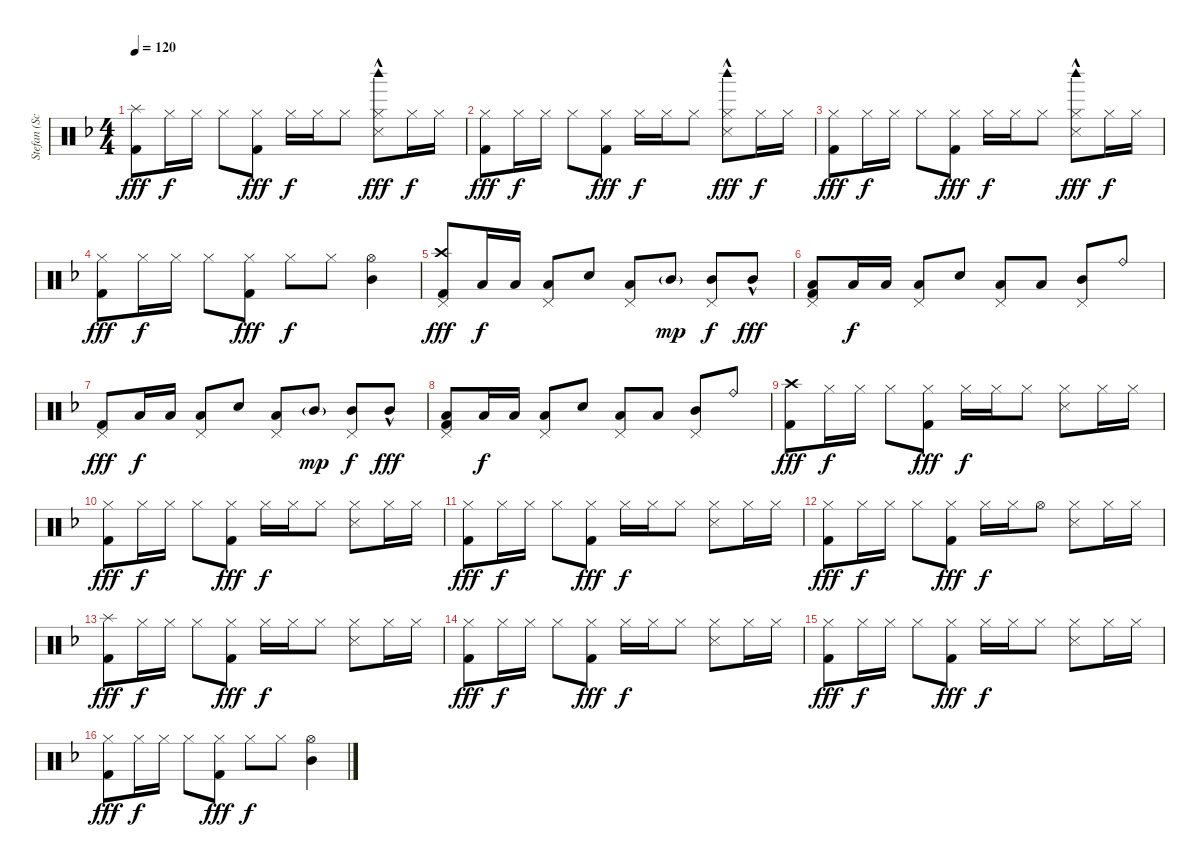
\track ("Stefan (Schlagzeug)" "Stefan (Sc") {instrument percussion}
\staff {score}
\articulation defaults
\ts (4 4)
\tempo 120
\clef neutral
\ks f
("Splash (hit)" "Kick (hit) 2").8{dy fff} "Hi-Hat (closed)".16{dy f} "Hi-Hat (closed)".16 "Hi-Hat (closed)".8 ("Hi-Hat (closed)" "Kick (hit) 2").8{dy fff} "Hi-Hat (closed)".16{dy f} "Hi-Hat (closed)".16 "Hi-Hat (closed)".8 ("Hi-Hat (closed)" "Woodblock high (hit)"{hac} "Snare (side stick) 3").8{dy fff} "Hi-Hat (closed)".16{dy f} "Hi-Hat (closed)".16 |
("Hi-Hat (closed)" "Kick (hit) 2").8{dy fff} "Hi-Hat (closed)".16{dy f} "Hi-Hat (closed)".16 "Hi-Hat (closed)".8 ("Hi-Hat (closed)" "Kick (hit) 2").8{dy fff} "Hi-Hat (closed)".16{dy f} "Hi-Hat (closed)".16 "Hi-Hat (closed)".8 ("Hi-Hat (closed)" "Woodblock high (hit)"{hac} "Snare (side stick) 3").8{dy fff} "Hi-Hat (closed)".16{dy f} "Hi-Hat (closed)".16 |
("Hi-Hat (closed)" "Kick (hit) 2").8{dy fff} "Hi-Hat (closed)".16{dy f} "Hi-Hat (closed)".16 "Hi-Hat (closed)".8 ("Hi-Hat (closed)" "Kick (hit) 2").8{dy fff} "Hi-Hat (closed)".16{dy f} "Hi-Hat (closed)".16 "Hi-Hat (closed)".8 ("Hi-Hat (closed)" "Woodblock high (hit)"{hac} "Snare (side stick) 3").8{dy fff} "Hi-Hat (closed)".16{dy f} "Hi-Hat (closed)".16 |
("Hi-Hat (closed)" "Kick (hit) 2").8{dy fff} "Hi-Hat (closed)".16{dy f} "Hi-Hat (closed)".16 "Hi-Hat (closed)".8 ("Hi-Hat (closed)" "Kick (hit) 2").8{dy fff} "Hi-Hat (closed)".8{dy f} "Hi-Hat (closed)".8 ("Hi-Hat (open)" "Mid Tom (hit)").4 |
("Crash high (hit)" "Kick (hit) 2" "Pedal Hi-Hat (hit)").8{dy fff} "Low Tom (hit)".16{dy f} "Low Tom (hit)".16 ("Low Tom (hit)" "Pedal Hi-Hat (hit)").8 "Snare (hit) 2".8 ("Low Tom (hit)" "Pedal Hi-Hat (hit)").8 "Mid Tom (hit)"{g}.8{dy mp} ("Mid Tom (hit)" "Pedal Hi-Hat (hit)").8{dy f} "Mid Tom (hit)"{hac}.8{dy fff} |
("Low Tom (hit)" "Kick (hit) 2" "Pedal Hi-Hat (hit)").8 "Low Tom (hit)".16{dy f} "Low Tom (hit)".16 ("Low Tom (hit)" "Pedal Hi-Hat (hit)").8 "Snare (hit) 2".8 ("Low Tom (hit)" "Pedal Hi-Hat (hit)").8 "Low Tom (hit)".8 ("Mid Tom (hit)" "Pedal Hi-Hat (hit)").8 "Ride (bell)".8 |
("Kick (hit) 2" "Pedal Hi-Hat (hit)").8{dy fff} "Low Tom (hit)".16{dy f} "Low Tom (hit)".16 ("Low Tom (hit)" "Pedal Hi-Hat (hit)").8 "Snare (hit) 2".8 ("Low Tom (hit)" "Pedal Hi-Hat (hit)").8 "Mid Tom (hit)"{g}.8{dy mp} ("Mid Tom (hit)" "Pedal Hi-Hat (hit)").8{dy f} "Mid Tom (hit)"{hac}.8{dy fff} |
("Low Tom (hit)" "Kick (hit) 2" "Pedal Hi-Hat (hit)").8 "Low Tom (hit)".16{dy f} "Low Tom (hit)".16 ("Low Tom (hit)" "Pedal Hi-Hat (hit)").8 "Snare (hit) 2".8 ("Low Tom (hit)" "Pedal Hi-Hat (hit)").8 "Low Tom (hit)".8 ("Mid Tom (hit)" "Pedal Hi-Hat (hit)").8 "Ride (bell)".8 |
("Crash high (hit)" "Kick (hit) 2").8{dy fff} "Hi-Hat (closed)".16{dy f} "Hi-Hat (closed)".16 "Hi-Hat (closed)".8 ("Hi-Hat (closed)" "Kick (hit) 2").8{dy fff} "Hi-Hat (closed)".16{dy f} "Hi-Hat (closed)".16 "Hi-Hat (closed)".8 ("Hi-Hat (closed)" "Snare (side stick) 3").8 "Hi-Hat (closed)".16 "Hi-Hat (closed)".16 |
("Hi-Hat (closed)" "Kick (hit) 2").8{dy fff} "Hi-Hat (closed)".16{dy f} "Hi-Hat (closed)".16 "Hi-Hat (closed)".8 ("Hi-Hat (closed)" "Kick (hit) 2").8{dy fff} "Hi-Hat (closed)".16{dy f} "Hi-Hat (closed)".16 "Hi-Hat (closed)".8 ("Hi-Hat (closed)" "Snare (side stick) 3").8 "Hi-Hat (closed)".16 "Hi-Hat (closed)".16 |
("Hi-Hat (closed)" "Kick (hit) 2").8{dy fff} "Hi-Hat (closed)".16{dy f} "Hi-Hat (closed)".16 "Hi-Hat (closed)".8 ("Hi-Hat (closed)" "Kick (hit) 2").8{dy fff} "Hi-Hat (closed)".16{dy f} "Hi-Hat (closed)".16 "Hi-Hat (closed)".8 ("Hi-Hat (closed)" "Snare (side stick) 3").8 "Hi-Hat (closed)".16 "Hi-Hat (closed)".16 |
("Hi-Hat (closed)" "Kick (hit) 2").8{dy fff} "Hi-Hat (closed)".16{dy f} "Hi-Hat (closed)".16 "Hi-Hat (closed)".8 ("Hi-Hat (closed)" "Kick (hit) 2").8{dy fff} "Hi-Hat (closed)".16{dy f} "Hi-Hat (closed)".16 "Hi-Hat (open)".8 ("Hi-Hat (closed)" "Snare (side stick) 3").8 "Hi-Hat (closed)".16 "Hi-Hat (closed)".16 |
("Splash (hit)" "Kick (hit) 2").8{dy fff} "Hi-Hat (closed)".16{dy f} "Hi-Hat (closed)".16 "Hi-Hat (closed)".8 ("Hi-Hat (closed)" "Kick (hit) 2").8{dy fff} "Hi-Hat (closed)".16{dy f} "Hi-Hat (closed)".16 "Hi-Hat (closed)".8 ("Hi-Hat (closed)" "Snare (side stick) 3").8 "Hi-Hat (closed)".16 "Hi-Hat (closed)".16 |
("Hi-Hat (closed)" "Kick (hit) 2").8{dy fff} "Hi-Hat (closed)".16{dy f} "Hi-Hat (closed)".16 "Hi-Hat (closed)".8 ("Hi-Hat (closed)" "Kick (hit) 2").8{dy fff} "Hi-Hat (closed)".16{dy f} "Hi-Hat (closed)".16 "Hi-Hat (closed)".8 ("Hi-Hat (closed)" "Snare (side stick) 3").8 "Hi-Hat (closed)".16 "Hi-Hat (closed)".16 |
("Hi-Hat (closed)" "Kick (hit) 2").8{dy fff} "Hi-Hat (closed)".16{dy f} "Hi-Hat (closed)".16 "Hi-Hat (closed)".8 ("Hi-Hat (closed)" "Kick (hit) 2").8{dy fff} "Hi-Hat (closed)".16{dy f} "Hi-Hat (closed)".16 "Hi-Hat (closed)".8 ("Hi-Hat (closed)" "Snare (side stick) 3").8 "Hi-Hat (closed)".16 "Hi-Hat (closed)".16 |
("Hi-Hat (closed)" "Kick (hit) 2").8{dy fff} "Hi-Hat (closed)".16{dy f} "Hi-Hat (closed)".16 "Hi-Hat (closed)".8 ("Hi-Hat (closed)" "Kick (hit) 2").8{dy fff} "Hi-Hat (closed)".8{dy f} "Hi-Hat (closed)".8 ("Hi-Hat (open)" "Mid Tom (hit)").4
